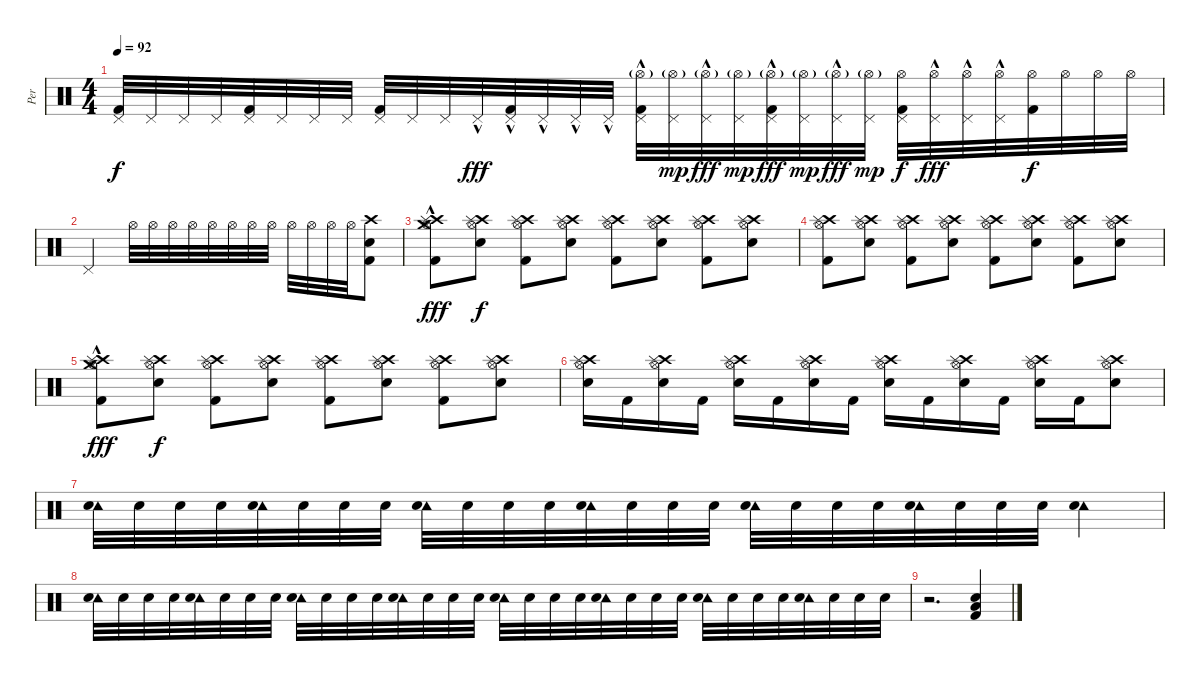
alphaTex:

\track ("Per" "Per") {instrument percussion}
\staff {score}
\articulation defaults
\ts (4 4)
\tempo 92
\clef neutral
\ks c
("Pedal Hi-Hat (hit)" "Kick (hit) 2").32{dy f} "Pedal Hi-Hat (hit)".32 "Pedal Hi-Hat (hit)".32 "Pedal Hi-Hat (hit)".32 ("Pedal Hi-Hat (hit)" "Kick (hit) 2").32 "Pedal Hi-Hat (hit)".32 "Pedal Hi-Hat (hit)".32 "Pedal Hi-Hat (hit)".32 ("Pedal Hi-Hat (hit)" "Kick (hit) 2").32 "Pedal Hi-Hat (hit)".32 "Pedal Hi-Hat (hit)".32 "Pedal Hi-Hat (hit)"{hac}.32{dy fff} ("Pedal Hi-Hat (hit)"{hac} "Kick (hit) 2").32 "Pedal Hi-Hat (hit)"{hac}.32 "Pedal Hi-Hat (hit)"{hac}.32 "Pedal Hi-Hat (hit)"{hac}.32 ("Hi-Hat (open)"{g} "Pedal Hi-Hat (hit)"{hac} "Kick (hit) 2").32 ("Hi-Hat (open)"{g} "Pedal Hi-Hat (hit)").32{dy mp} ("Hi-Hat (open)"{g} "Pedal Hi-Hat (hit)"{hac}).32{dy fff} ("Hi-Hat (open)"{g} "Pedal Hi-Hat (hit)").32{dy mp} ("Hi-Hat (open)"{g} "Pedal Hi-Hat (hit)"{hac} "Kick (hit) 2").32{dy fff} ("Hi-Hat (open)"{g} "Pedal Hi-Hat (hit)").32{dy mp} ("Hi-Hat (open)"{g} "Pedal Hi-Hat (hit)"{hac}).32{dy fff} ("Hi-Hat (open)"{g} "Pedal Hi-Hat (hit)").32{dy mp} ("Hi-Hat (open)" "Pedal Hi-Hat (hit)" "Kick (hit) 2").32{dy f} ("Hi-Hat (open)" "Pedal Hi-Hat (hit)"{hac}).32{dy fff} ("Hi-Hat (open)" "Pedal Hi-Hat (hit)"{hac}).32 ("Hi-Hat (open)" "Pedal Hi-Hat (hit)"{hac}).32 ("Hi-Hat (open)" "Kick (hit) 2").32{dy f} "Hi-Hat (open)".32 "Hi-Hat (open)".32 "Hi-Hat (open)".32 |
"Pedal Hi-Hat (hit)".2{volume 3} "Hi-Hat (open)".32{volume 13} "Hi-Hat (open)".32 "Hi-Hat (open)".32 "Hi-Hat (open)".32 "Hi-Hat (open)".32 "Hi-Hat (open)".32 "Hi-Hat (open)".32 "Hi-Hat (open)".32 "Hi-Hat (open)".32 "Hi-Hat (open)".32 "Hi-Hat (open)".32 "Hi-Hat (open)".32 ("Crash high (hit)" "Snare (hit) 2" "Kick (hit) 2").8 |
("Crash high (hit)" "Hi-Hat (open)" "Splash (hit)" "Crash medium (hit)"{hac} "Kick (hit) 2").8{dy fff} ("Crash high (hit)" "Hi-Hat (open)" "Splash (hit)" "Snare (hit) 2").8{dy f} ("Crash high (hit)" "Hi-Hat (open)" "Splash (hit)" "Kick (hit) 2").8 ("Crash high (hit)" "Hi-Hat (open)" "Splash (hit)" "Snare (hit) 2").8 ("Crash high (hit)" "Hi-Hat (open)" "Splash (hit)" "Kick (hit) 2").8 ("Crash high (hit)" "Hi-Hat (open)" "Splash (hit)" "Snare (hit) 2").8 ("Crash high (hit)" "Hi-Hat (open)" "Splash (hit)" "Kick (hit) 2").8 ("Crash high (hit)" "Hi-Hat (open)" "Splash (hit)" "Snare (hit) 2").8 |
("Crash high (hit)" "Hi-Hat (open)" "Splash (hit)" "Kick (hit) 2").8 ("Crash high (hit)" "Hi-Hat (open)" "Splash (hit)" "Snare (hit) 2").8 ("Crash high (hit)" "Hi-Hat (open)" "Splash (hit)" "Kick (hit) 2").8 ("Crash high (hit)" "Hi-Hat (open)" "Splash (hit)" "Snare (hit) 2").8 ("Crash high (hit)" "Hi-Hat (open)" "Splash (hit)" "Kick (hit) 2").8 ("Crash high (hit)" "Hi-Hat (open)" "Splash (hit)" "Snare (hit) 2").8 ("Crash high (hit)" "Hi-Hat (open)" "Splash (hit)" "Kick (hit) 2").8 ("Crash high (hit)" "Hi-Hat (open)" "Splash (hit)" "Snare (hit) 2").8 |
("Crash high (hit)" "Hi-Hat (open)" "Splash (hit)" "Crash medium (hit)"{hac} "Kick (hit) 2").8{dy fff} ("Crash high (hit)" "Hi-Hat (open)" "Splash (hit)" "Snare (hit) 2").8{dy f} ("Crash high (hit)" "Hi-Hat (open)" "Splash (hit)" "Kick (hit) 2").8 ("Crash high (hit)" "Hi-Hat (open)" "Splash (hit)" "Snare (hit) 2").8 ("Crash high (hit)" "Hi-Hat (open)" "Splash (hit)" "Kick (hit) 2").8 ("Crash high (hit)" "Hi-Hat (open)" "Splash (hit)" "Snare (hit) 2").8 ("Crash high (hit)" "Hi-Hat (open)" "Splash (hit)" "Kick (hit) 2").8 ("Crash high (hit)" "Hi-Hat (open)" "Splash (hit)" "Snare (hit) 2").8 |
("Crash high (hit)" "Hi-Hat (open)" "Splash (hit)" "Snare (hit) 2").16 "Kick (hit) 2".16 ("Crash high (hit)" "Hi-Hat (open)" "Splash (hit)" "Snare (hit) 2").16 "Kick (hit) 2".16 ("Crash high (hit)" "Hi-Hat (open)" "Splash (hit)" "Snare (hit) 2").16 "Kick (hit) 2".16 ("Crash high (hit)" "Hi-Hat (open)" "Splash (hit)" "Snare (hit) 2").16 "Kick (hit) 2".16 ("Crash high (hit)" "Hi-Hat (open)" "Splash (hit)" "Snare (hit) 2").16 "Kick (hit) 2".16 ("Crash high (hit)" "Hi-Hat (open)" "Splash (hit)" "Snare (hit) 2").16 "Kick (hit) 2".16 ("Crash high (hit)" "Hi-Hat (open)" "Splash (hit)" "Snare (hit) 2").16 "Kick (hit) 2".16 ("Crash high (hit)" "Hi-Hat (open)" "Splash (hit)" "Snare (hit) 2").8 |
("Tambourine (hit)" "Snare (hit) 2").32 "Snare (hit) 2".32 "Snare (hit) 2".32 "Snare (hit) 2".32 ("Tambourine (hit)" "Snare (hit) 2").32 "Snare (hit) 2".32 "Snare (hit) 2".32 "Snare (hit) 2".32 ("Tambourine (hit)" "Snare (hit) 2").32 "Snare (hit) 2".32 "Snare (hit) 2".32 "Snare (hit) 2".32 ("Tambourine (hit)" "Snare (hit) 2").32 "Snare (hit) 2".32 "Snare (hit) 2".32 "Snare (hit) 2".32 ("Tambourine (hit)" "Snare (hit) 2").32 "Snare (hit) 2".32 "Snare (hit) 2".32 "Snare (hit) 2".32 ("Tambourine (hit)" "Snare (hit) 2").32 "Snare (hit) 2".32 "Snare (hit) 2".32 "Snare (hit) 2".32 ("Tambourine (hit)" "Snare (hit) 2").4 |
("Tambourine (hit)" "Snare (hit) 2").32 "Snare (hit) 2".32 "Snare (hit) 2".32 "Snare (hit) 2".32 ("Tambourine (hit)" "Snare (hit) 2").32 "Snare (hit) 2".32 "Snare (hit) 2".32 "Snare (hit) 2".32 ("Tambourine (hit)" "Snare (hit) 2").32 "Snare (hit) 2".32 "Snare (hit) 2".32 "Snare (hit) 2".32 ("Tambourine (hit)" "Snare (hit) 2").32 "Snare (hit) 2".32 "Snare (hit) 2".32 "Snare (hit) 2".32 ("Tambourine (hit)" "Snare (hit) 2").32 "Snare (hit) 2".32 "Snare (hit) 2".32 "Snare (hit) 2".32 ("Tambourine (hit)" "Snare (hit) 2").32 "Snare (hit) 2".32 "Snare (hit) 2".32 "Snare (hit) 2".32 ("Tambourine (hit)" "Snare (hit) 2").32 "Snare (hit) 2".32 "Snare (hit) 2".32 "Snare (hit) 2".32 ("Tambourine (hit)" "Snare (hit) 2").32 "Snare (hit) 2".32 "Snare (hit) 2".32 "Snare (hit) 2".32 |
r.2{d} ("Low Floor Tom (hit)" "Snare (hit) 2" "Kick (hit) 2").4
